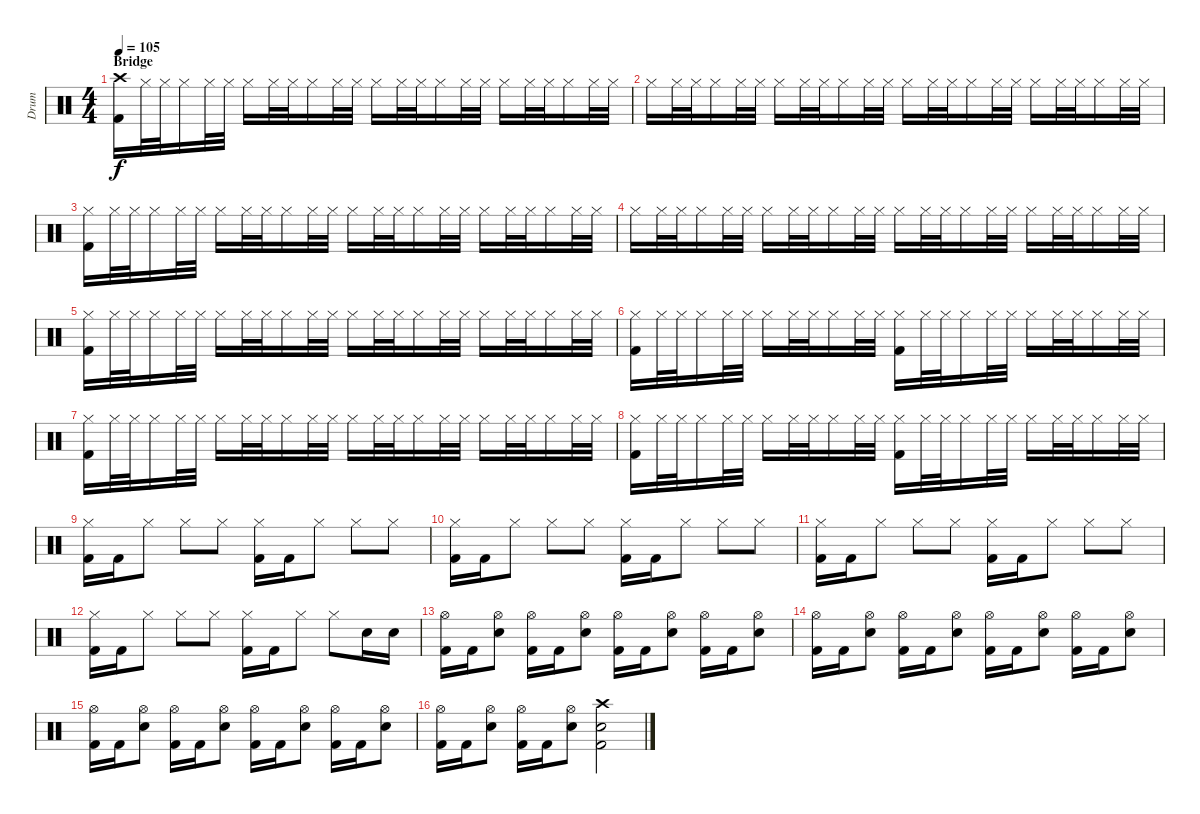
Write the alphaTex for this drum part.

\track ("Drum" "Drum") {instrument percussion}
\staff {score}
\articulation defaults
\ts (4 4)
\section ("" "Bridge")
\tempo 105
\clef neutral
\ks c
("Crash high (hit)" "Kick (hit) 2").16{dy f} "Hi-Hat (closed)".32 "Hi-Hat (closed)".32 "Hi-Hat (closed)".16 "Hi-Hat (closed)".32 "Hi-Hat (closed)".32 "Hi-Hat (closed)".16 "Hi-Hat (closed)".32 "Hi-Hat (closed)".32 "Hi-Hat (closed)".16 "Hi-Hat (closed)".32 "Hi-Hat (closed)".32 "Hi-Hat (closed)".16 "Hi-Hat (closed)".32 "Hi-Hat (closed)".32 "Hi-Hat (closed)".16 "Hi-Hat (closed)".32 "Hi-Hat (closed)".32 "Hi-Hat (closed)".16 "Hi-Hat (closed)".32 "Hi-Hat (closed)".32 "Hi-Hat (closed)".16 "Hi-Hat (closed)".32 "Hi-Hat (closed)".32 |
"Hi-Hat (closed)".16 "Hi-Hat (closed)".32 "Hi-Hat (closed)".32 "Hi-Hat (closed)".16 "Hi-Hat (closed)".32 "Hi-Hat (closed)".32 "Hi-Hat (closed)".16 "Hi-Hat (closed)".32 "Hi-Hat (closed)".32 "Hi-Hat (closed)".16 "Hi-Hat (closed)".32 "Hi-Hat (closed)".32 "Hi-Hat (closed)".16 "Hi-Hat (closed)".32 "Hi-Hat (closed)".32 "Hi-Hat (closed)".16 "Hi-Hat (closed)".32 "Hi-Hat (closed)".32 "Hi-Hat (closed)".16 "Hi-Hat (closed)".32 "Hi-Hat (closed)".32 "Hi-Hat (closed)".16 "Hi-Hat (closed)".32 "Hi-Hat (closed)".32 |
("Hi-Hat (closed)" "Kick (hit) 2").16 "Hi-Hat (closed)".32 "Hi-Hat (closed)".32 "Hi-Hat (closed)".16 "Hi-Hat (closed)".32 "Hi-Hat (closed)".32 "Hi-Hat (closed)".16 "Hi-Hat (closed)".32 "Hi-Hat (closed)".32 "Hi-Hat (closed)".16 "Hi-Hat (closed)".32 "Hi-Hat (closed)".32 "Hi-Hat (closed)".16 "Hi-Hat (closed)".32 "Hi-Hat (closed)".32 "Hi-Hat (closed)".16 "Hi-Hat (closed)".32 "Hi-Hat (closed)".32 "Hi-Hat (closed)".16 "Hi-Hat (closed)".32 "Hi-Hat (closed)".32 "Hi-Hat (closed)".16 "Hi-Hat (closed)".32 "Hi-Hat (closed)".32 |
"Hi-Hat (closed)".16 "Hi-Hat (closed)".32 "Hi-Hat (closed)".32 "Hi-Hat (closed)".16 "Hi-Hat (closed)".32 "Hi-Hat (closed)".32 "Hi-Hat (closed)".16 "Hi-Hat (closed)".32 "Hi-Hat (closed)".32 "Hi-Hat (closed)".16 "Hi-Hat (closed)".32 "Hi-Hat (closed)".32 "Hi-Hat (closed)".16 "Hi-Hat (closed)".32 "Hi-Hat (closed)".32 "Hi-Hat (closed)".16 "Hi-Hat (closed)".32 "Hi-Hat (closed)".32 "Hi-Hat (closed)".16 "Hi-Hat (closed)".32 "Hi-Hat (closed)".32 "Hi-Hat (closed)".16 "Hi-Hat (closed)".32 "Hi-Hat (closed)".32 |
("Hi-Hat (closed)" "Kick (hit) 2").16 "Hi-Hat (closed)".32 "Hi-Hat (closed)".32 "Hi-Hat (closed)".16 "Hi-Hat (closed)".32 "Hi-Hat (closed)".32 "Hi-Hat (closed)".16 "Hi-Hat (closed)".32 "Hi-Hat (closed)".32 "Hi-Hat (closed)".16 "Hi-Hat (closed)".32 "Hi-Hat (closed)".32 "Hi-Hat (closed)".16 "Hi-Hat (closed)".32 "Hi-Hat (closed)".32 "Hi-Hat (closed)".16 "Hi-Hat (closed)".32 "Hi-Hat (closed)".32 "Hi-Hat (closed)".16 "Hi-Hat (closed)".32 "Hi-Hat (closed)".32 "Hi-Hat (closed)".16 "Hi-Hat (closed)".32 "Hi-Hat (closed)".32 |
("Hi-Hat (closed)" "Kick (hit) 2").16 "Hi-Hat (closed)".32 "Hi-Hat (closed)".32 "Hi-Hat (closed)".16 "Hi-Hat (closed)".32 "Hi-Hat (closed)".32 "Hi-Hat (closed)".16 "Hi-Hat (closed)".32 "Hi-Hat (closed)".32 "Hi-Hat (closed)".16 "Hi-Hat (closed)".32 "Hi-Hat (closed)".32 ("Hi-Hat (closed)" "Kick (hit) 2").16 "Hi-Hat (closed)".32 "Hi-Hat (closed)".32 "Hi-Hat (closed)".16 "Hi-Hat (closed)".32 "Hi-Hat (closed)".32 "Hi-Hat (closed)".16 "Hi-Hat (closed)".32 "Hi-Hat (closed)".32 "Hi-Hat (closed)".16 "Hi-Hat (closed)".32 "Hi-Hat (closed)".32 |
("Hi-Hat (closed)" "Kick (hit) 2").16 "Hi-Hat (closed)".32 "Hi-Hat (closed)".32 "Hi-Hat (closed)".16 "Hi-Hat (closed)".32 "Hi-Hat (closed)".32 "Hi-Hat (closed)".16 "Hi-Hat (closed)".32 "Hi-Hat (closed)".32 "Hi-Hat (closed)".16 "Hi-Hat (closed)".32 "Hi-Hat (closed)".32 "Hi-Hat (closed)".16 "Hi-Hat (closed)".32 "Hi-Hat (closed)".32 "Hi-Hat (closed)".16 "Hi-Hat (closed)".32 "Hi-Hat (closed)".32 "Hi-Hat (closed)".16 "Hi-Hat (closed)".32 "Hi-Hat (closed)".32 "Hi-Hat (closed)".16 "Hi-Hat (closed)".32 "Hi-Hat (closed)".32 |
("Hi-Hat (closed)" "Kick (hit) 2").16 "Hi-Hat (closed)".32 "Hi-Hat (closed)".32 "Hi-Hat (closed)".16 "Hi-Hat (closed)".32 "Hi-Hat (closed)".32 "Hi-Hat (closed)".16 "Hi-Hat (closed)".32 "Hi-Hat (closed)".32 "Hi-Hat (closed)".16 "Hi-Hat (closed)".32 "Hi-Hat (closed)".32 ("Hi-Hat (closed)" "Kick (hit) 2").16 "Hi-Hat (closed)".32 "Hi-Hat (closed)".32 "Hi-Hat (closed)".16 "Hi-Hat (closed)".32 "Hi-Hat (closed)".32 "Hi-Hat (closed)".16 "Hi-Hat (closed)".32 "Hi-Hat (closed)".32 "Hi-Hat (closed)".16 "Hi-Hat (closed)".32 "Hi-Hat (closed)".32 |
("Hi-Hat (closed)" "Kick (hit) 2").16 "Kick (hit) 2".16 "Hi-Hat (closed)".8 "Hi-Hat (closed)".8 "Hi-Hat (closed)".8 ("Hi-Hat (closed)" "Kick (hit) 2").16 "Kick (hit) 2".16 "Hi-Hat (closed)".8 "Hi-Hat (closed)".8 "Hi-Hat (closed)".8 |
("Hi-Hat (closed)" "Kick (hit) 2").16 "Kick (hit) 2".16 "Hi-Hat (closed)".8 "Hi-Hat (closed)".8 "Hi-Hat (closed)".8 ("Hi-Hat (closed)" "Kick (hit) 2").16 "Kick (hit) 2".16 "Hi-Hat (closed)".8 "Hi-Hat (closed)".8 "Hi-Hat (closed)".8 |
("Hi-Hat (closed)" "Kick (hit) 2").16 "Kick (hit) 2".16 "Hi-Hat (closed)".8 "Hi-Hat (closed)".8 "Hi-Hat (closed)".8 ("Hi-Hat (closed)" "Kick (hit) 2").16 "Kick (hit) 2".16 "Hi-Hat (closed)".8 "Hi-Hat (closed)".8 "Hi-Hat (closed)".8 |
("Hi-Hat (closed)" "Kick (hit) 2").16 "Kick (hit) 2".16 "Hi-Hat (closed)".8 "Hi-Hat (closed)".8 "Hi-Hat (closed)".8 ("Hi-Hat (closed)" "Kick (hit) 2").16 "Kick (hit) 2".16 "Hi-Hat (closed)".8 "Hi-Hat (closed)".8 "Electric Snare (hit)".16 "Electric Snare (hit)".16 |
("Hi-Hat (open)" "Kick (hit) 2").16 "Kick (hit) 2".16 ("Hi-Hat (open)" "Electric Snare (hit)").8 ("Hi-Hat (open)" "Kick (hit) 2").16 "Kick (hit) 2".16 ("Hi-Hat (open)" "Electric Snare (hit)").8 ("Hi-Hat (open)" "Kick (hit) 2").16 "Kick (hit) 2".16 ("Hi-Hat (open)" "Electric Snare (hit)").8 ("Hi-Hat (open)" "Kick (hit) 2").16 "Kick (hit) 2".16 ("Hi-Hat (open)" "Electric Snare (hit)").8 |
("Hi-Hat (open)" "Kick (hit) 2").16 "Kick (hit) 2".16 ("Hi-Hat (open)" "Electric Snare (hit)").8 ("Hi-Hat (open)" "Kick (hit) 2").16 "Kick (hit) 2".16 ("Hi-Hat (open)" "Electric Snare (hit)").8 ("Hi-Hat (open)" "Kick (hit) 2").16 "Kick (hit) 2".16 ("Hi-Hat (open)" "Electric Snare (hit)").8 ("Hi-Hat (open)" "Kick (hit) 2").16 "Kick (hit) 2".16 ("Hi-Hat (open)" "Electric Snare (hit)").8 |
("Hi-Hat (open)" "Kick (hit) 2").16 "Kick (hit) 2".16 ("Hi-Hat (open)" "Electric Snare (hit)").8 ("Hi-Hat (open)" "Kick (hit) 2").16 "Kick (hit) 2".16 ("Hi-Hat (open)" "Electric Snare (hit)").8 ("Hi-Hat (open)" "Kick (hit) 2").16 "Kick (hit) 2".16 ("Hi-Hat (open)" "Electric Snare (hit)").8 ("Hi-Hat (open)" "Kick (hit) 2").16 "Kick (hit) 2".16 ("Hi-Hat (open)" "Electric Snare (hit)").8 |
("Hi-Hat (open)" "Kick (hit) 2").16 "Kick (hit) 2".16 ("Hi-Hat (open)" "Electric Snare (hit)").8 ("Hi-Hat (open)" "Kick (hit) 2").16 "Kick (hit) 2".16 ("Hi-Hat (open)" "Electric Snare (hit)").8 ("Crash high (hit)" "Electric Snare (hit)" "Kick (hit) 2").2
